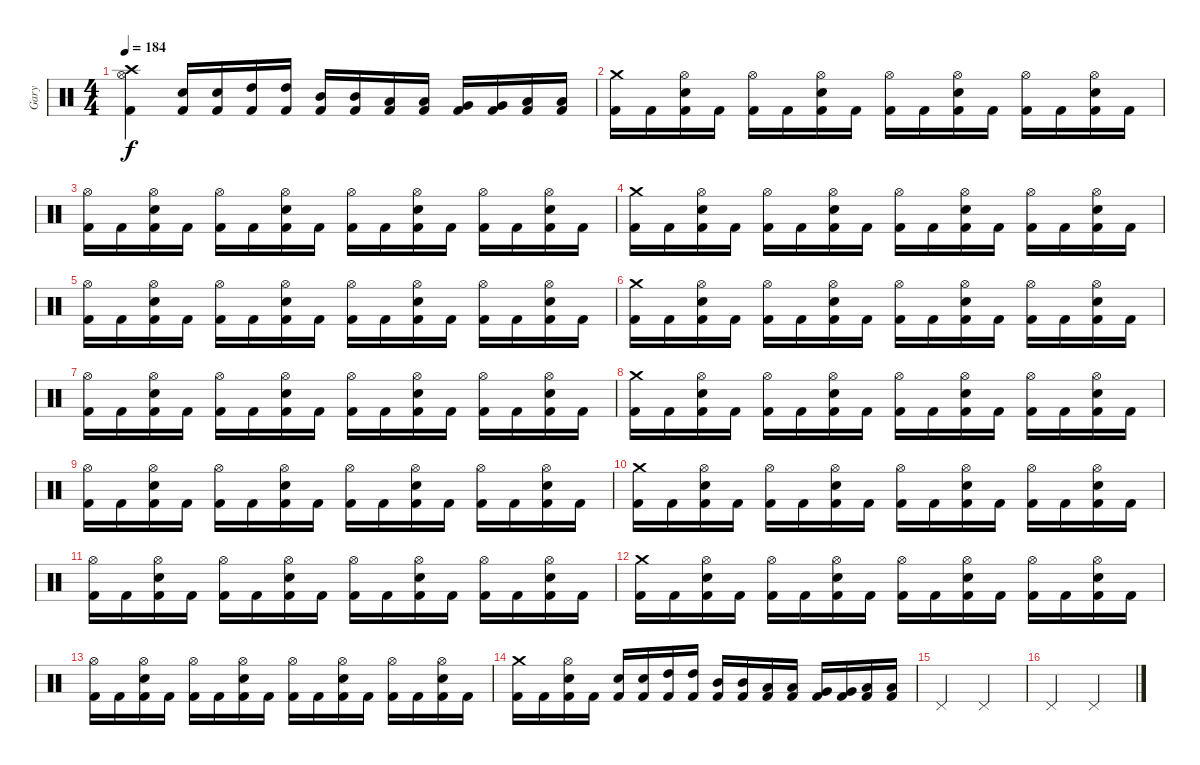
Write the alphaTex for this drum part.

\track ("Gary" "Gary") {instrument percussion}
\staff {score}
\articulation defaults
\ts (4 4)
\tempo 184
\clef neutral
\ks c
("Crash high (hit)" "Hi-Hat (open)" "Kick (hit) 2").4{dy f} ("Snare (hit) 2" "Kick (hit) 2").16 ("Snare (hit) 2" "Kick (hit) 2").16 ("High Tom (hit)" "Kick (hit) 2").16 ("High Tom (hit)" "Kick (hit) 2").16 ("Mid Tom (hit)" "Kick (hit) 2").16 ("Mid Tom (hit)" "Kick (hit) 2").16 ("Low Tom (hit)" "Kick (hit) 2").16 ("Low Tom (hit)" "Kick (hit) 2").16 ("Very Low Tom (hit)" "Kick (hit) 2").16 ("Very Low Tom (hit)" "Kick (hit) 2").16 ("Low Floor Tom (hit)" "Kick (hit) 2").16 ("Low Floor Tom (hit)" "Kick (hit) 2").16 |
("Crash medium (hit)" "Kick (hit) 2").16 "Kick (hit) 2".16 ("Hi-Hat (open)" "Snare (hit) 2" "Kick (hit) 2").16 "Kick (hit) 2".16 ("Hi-Hat (open)" "Kick (hit) 2").16 "Kick (hit) 2".16 ("Hi-Hat (open)" "Snare (hit) 2" "Kick (hit) 2").16 "Kick (hit) 2".16 ("Hi-Hat (open)" "Kick (hit) 2").16 "Kick (hit) 2".16 ("Hi-Hat (open)" "Snare (hit) 2" "Kick (hit) 2").16 "Kick (hit) 2".16 ("Hi-Hat (open)" "Kick (hit) 2").16 "Kick (hit) 2".16 ("Hi-Hat (open)" "Snare (hit) 2" "Kick (hit) 2").16 "Kick (hit) 2".16 |
("Hi-Hat (open)" "Kick (hit) 2").16 "Kick (hit) 2".16 ("Hi-Hat (open)" "Snare (hit) 2" "Kick (hit) 2").16 "Kick (hit) 2".16 ("Hi-Hat (open)" "Kick (hit) 2").16 "Kick (hit) 2".16 ("Hi-Hat (open)" "Snare (hit) 2" "Kick (hit) 2").16 "Kick (hit) 2".16 ("Hi-Hat (open)" "Kick (hit) 2").16 "Kick (hit) 2".16 ("Hi-Hat (open)" "Snare (hit) 2" "Kick (hit) 2").16 "Kick (hit) 2".16 ("Hi-Hat (open)" "Kick (hit) 2").16 "Kick (hit) 2".16 ("Hi-Hat (open)" "Snare (hit) 2" "Kick (hit) 2").16 "Kick (hit) 2".16 |
("Crash medium (hit)" "Kick (hit) 2").16 "Kick (hit) 2".16 ("Hi-Hat (open)" "Snare (hit) 2" "Kick (hit) 2").16 "Kick (hit) 2".16 ("Hi-Hat (open)" "Kick (hit) 2").16 "Kick (hit) 2".16 ("Hi-Hat (open)" "Snare (hit) 2" "Kick (hit) 2").16 "Kick (hit) 2".16 ("Hi-Hat (open)" "Kick (hit) 2").16 "Kick (hit) 2".16 ("Hi-Hat (open)" "Snare (hit) 2" "Kick (hit) 2").16 "Kick (hit) 2".16 ("Hi-Hat (open)" "Kick (hit) 2").16 "Kick (hit) 2".16 ("Hi-Hat (open)" "Snare (hit) 2" "Kick (hit) 2").16 "Kick (hit) 2".16 |
("Hi-Hat (open)" "Kick (hit) 2").16 "Kick (hit) 2".16 ("Hi-Hat (open)" "Snare (hit) 2" "Kick (hit) 2").16 "Kick (hit) 2".16 ("Hi-Hat (open)" "Kick (hit) 2").16 "Kick (hit) 2".16 ("Hi-Hat (open)" "Snare (hit) 2" "Kick (hit) 2").16 "Kick (hit) 2".16 ("Hi-Hat (open)" "Kick (hit) 2").16 "Kick (hit) 2".16 ("Hi-Hat (open)" "Snare (hit) 2" "Kick (hit) 2").16 "Kick (hit) 2".16 ("Hi-Hat (open)" "Kick (hit) 2").16 "Kick (hit) 2".16 ("Hi-Hat (open)" "Snare (hit) 2" "Kick (hit) 2").16 "Kick (hit) 2".16 |
("Crash medium (hit)" "Kick (hit) 2").16 "Kick (hit) 2".16 ("Hi-Hat (open)" "Snare (hit) 2" "Kick (hit) 2").16 "Kick (hit) 2".16 ("Hi-Hat (open)" "Kick (hit) 2").16 "Kick (hit) 2".16 ("Hi-Hat (open)" "Snare (hit) 2" "Kick (hit) 2").16 "Kick (hit) 2".16 ("Hi-Hat (open)" "Kick (hit) 2").16 "Kick (hit) 2".16 ("Hi-Hat (open)" "Snare (hit) 2" "Kick (hit) 2").16 "Kick (hit) 2".16 ("Hi-Hat (open)" "Kick (hit) 2").16 "Kick (hit) 2".16 ("Hi-Hat (open)" "Snare (hit) 2" "Kick (hit) 2").16 "Kick (hit) 2".16 |
("Hi-Hat (open)" "Kick (hit) 2").16 "Kick (hit) 2".16 ("Hi-Hat (open)" "Snare (hit) 2" "Kick (hit) 2").16 "Kick (hit) 2".16 ("Hi-Hat (open)" "Kick (hit) 2").16 "Kick (hit) 2".16 ("Hi-Hat (open)" "Snare (hit) 2" "Kick (hit) 2").16 "Kick (hit) 2".16 ("Hi-Hat (open)" "Kick (hit) 2").16 "Kick (hit) 2".16 ("Hi-Hat (open)" "Snare (hit) 2" "Kick (hit) 2").16 "Kick (hit) 2".16 ("Hi-Hat (open)" "Kick (hit) 2").16 "Kick (hit) 2".16 ("Hi-Hat (open)" "Snare (hit) 2" "Kick (hit) 2").16 "Kick (hit) 2".16 |
("Crash medium (hit)" "Kick (hit) 2").16 "Kick (hit) 2".16 ("Hi-Hat (open)" "Snare (hit) 2" "Kick (hit) 2").16 "Kick (hit) 2".16 ("Hi-Hat (open)" "Kick (hit) 2").16 "Kick (hit) 2".16 ("Hi-Hat (open)" "Snare (hit) 2" "Kick (hit) 2").16 "Kick (hit) 2".16 ("Hi-Hat (open)" "Kick (hit) 2").16 "Kick (hit) 2".16 ("Hi-Hat (open)" "Snare (hit) 2" "Kick (hit) 2").16 "Kick (hit) 2".16 ("Hi-Hat (open)" "Kick (hit) 2").16 "Kick (hit) 2".16 ("Hi-Hat (open)" "Snare (hit) 2" "Kick (hit) 2").16 "Kick (hit) 2".16 |
("Hi-Hat (open)" "Kick (hit) 2").16 "Kick (hit) 2".16 ("Hi-Hat (open)" "Snare (hit) 2" "Kick (hit) 2").16 "Kick (hit) 2".16 ("Hi-Hat (open)" "Kick (hit) 2").16 "Kick (hit) 2".16 ("Hi-Hat (open)" "Snare (hit) 2" "Kick (hit) 2").16 "Kick (hit) 2".16 ("Hi-Hat (open)" "Kick (hit) 2").16 "Kick (hit) 2".16 ("Hi-Hat (open)" "Snare (hit) 2" "Kick (hit) 2").16 "Kick (hit) 2".16 ("Hi-Hat (open)" "Kick (hit) 2").16 "Kick (hit) 2".16 ("Hi-Hat (open)" "Snare (hit) 2" "Kick (hit) 2").16 "Kick (hit) 2".16 |
("Crash medium (hit)" "Kick (hit) 2").16 "Kick (hit) 2".16 ("Hi-Hat (open)" "Snare (hit) 2" "Kick (hit) 2").16 "Kick (hit) 2".16 ("Hi-Hat (open)" "Kick (hit) 2").16 "Kick (hit) 2".16 ("Hi-Hat (open)" "Snare (hit) 2" "Kick (hit) 2").16 "Kick (hit) 2".16 ("Hi-Hat (open)" "Kick (hit) 2").16 "Kick (hit) 2".16 ("Hi-Hat (open)" "Snare (hit) 2" "Kick (hit) 2").16 "Kick (hit) 2".16 ("Hi-Hat (open)" "Kick (hit) 2").16 "Kick (hit) 2".16 ("Hi-Hat (open)" "Snare (hit) 2" "Kick (hit) 2").16 "Kick (hit) 2".16 |
("Hi-Hat (open)" "Kick (hit) 2").16 "Kick (hit) 2".16 ("Hi-Hat (open)" "Snare (hit) 2" "Kick (hit) 2").16 "Kick (hit) 2".16 ("Hi-Hat (open)" "Kick (hit) 2").16 "Kick (hit) 2".16 ("Hi-Hat (open)" "Snare (hit) 2" "Kick (hit) 2").16 "Kick (hit) 2".16 ("Hi-Hat (open)" "Kick (hit) 2").16 "Kick (hit) 2".16 ("Hi-Hat (open)" "Snare (hit) 2" "Kick (hit) 2").16 "Kick (hit) 2".16 ("Hi-Hat (open)" "Kick (hit) 2").16 "Kick (hit) 2".16 ("Hi-Hat (open)" "Snare (hit) 2" "Kick (hit) 2").16 "Kick (hit) 2".16 |
("Crash medium (hit)" "Kick (hit) 2").16 "Kick (hit) 2".16 ("Hi-Hat (open)" "Snare (hit) 2" "Kick (hit) 2").16 "Kick (hit) 2".16 ("Hi-Hat (open)" "Kick (hit) 2").16 "Kick (hit) 2".16 ("Hi-Hat (open)" "Snare (hit) 2" "Kick (hit) 2").16 "Kick (hit) 2".16 ("Hi-Hat (open)" "Kick (hit) 2").16 "Kick (hit) 2".16 ("Hi-Hat (open)" "Snare (hit) 2" "Kick (hit) 2").16 "Kick (hit) 2".16 ("Hi-Hat (open)" "Kick (hit) 2").16 "Kick (hit) 2".16 ("Hi-Hat (open)" "Snare (hit) 2" "Kick (hit) 2").16 "Kick (hit) 2".16 |
("Hi-Hat (open)" "Kick (hit) 2").16 "Kick (hit) 2".16 ("Hi-Hat (open)" "Snare (hit) 2" "Kick (hit) 2").16 "Kick (hit) 2".16 ("Hi-Hat (open)" "Kick (hit) 2").16 "Kick (hit) 2".16 ("Hi-Hat (open)" "Snare (hit) 2" "Kick (hit) 2").16 "Kick (hit) 2".16 ("Hi-Hat (open)" "Kick (hit) 2").16 "Kick (hit) 2".16 ("Hi-Hat (open)" "Snare (hit) 2" "Kick (hit) 2").16 "Kick (hit) 2".16 ("Hi-Hat (open)" "Kick (hit) 2").16 "Kick (hit) 2".16 ("Hi-Hat (open)" "Snare (hit) 2" "Kick (hit) 2").16 "Kick (hit) 2".16 |
("Crash medium (hit)" "Kick (hit) 2").16 "Kick (hit) 2".16 ("Hi-Hat (open)" "Snare (hit) 2" "Kick (hit) 2").16 "Kick (hit) 2".16 ("Snare (hit) 2" "Kick (hit) 2").16 ("Snare (hit) 2" "Kick (hit) 2").16 ("High Tom (hit)" "Kick (hit) 2").16 ("High Tom (hit)" "Kick (hit) 2").16 ("Mid Tom (hit)" "Kick (hit) 2").16 ("Mid Tom (hit)" "Kick (hit) 2").16 ("Low Tom (hit)" "Kick (hit) 2").16 ("Low Tom (hit)" "Kick (hit) 2").16 ("Very Low Tom (hit)" "Kick (hit) 2").16 ("Very Low Tom (hit)" "Kick (hit) 2").16 ("Low Floor Tom (hit)" "Kick (hit) 2").16 ("Low Floor Tom (hit)" "Kick (hit) 2").16 |
"Pedal Hi-Hat (hit)".2 "Pedal Hi-Hat (hit)".2 |
"Pedal Hi-Hat (hit)".2 "Pedal Hi-Hat (hit)".2
